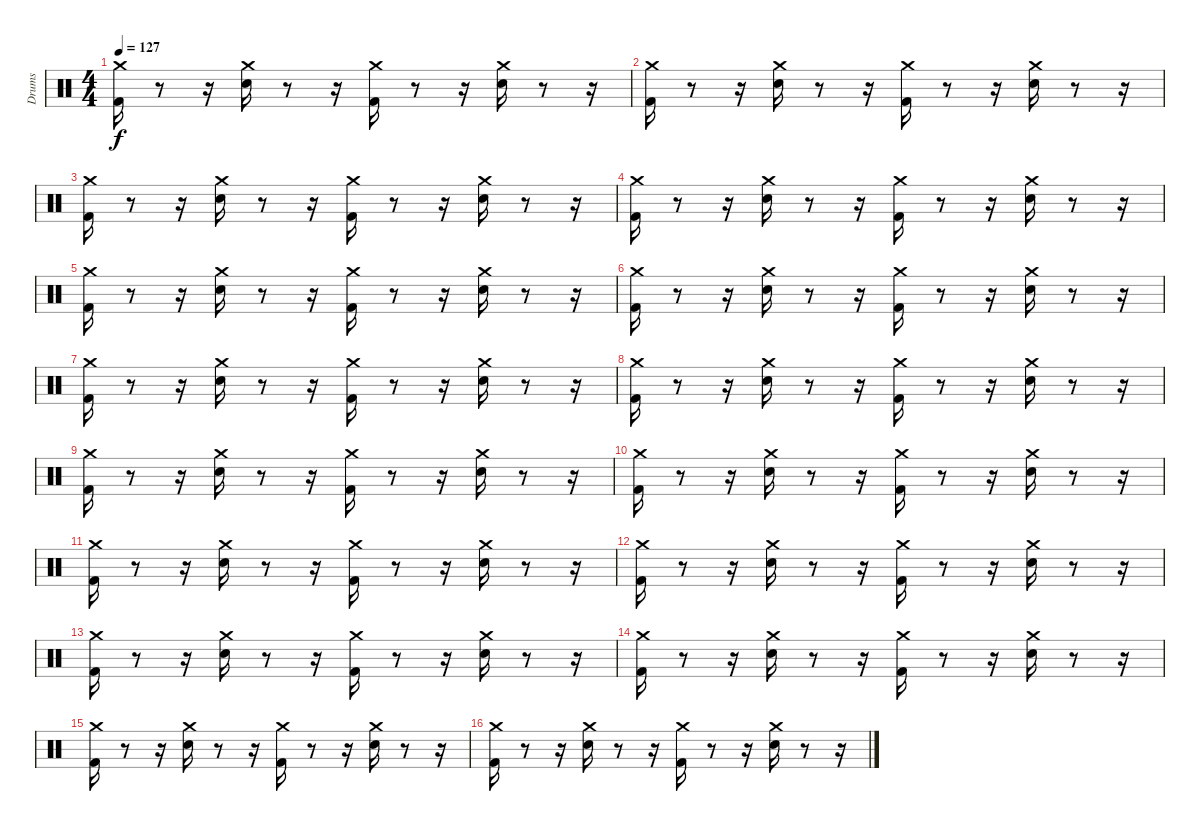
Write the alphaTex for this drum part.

\track ("Drums               " "Drums     ") {instrument percussion}
\staff {score}
\articulation defaults
\ts (4 4)
\tempo 127
\clef neutral
\ks c
("Kick (hit) 2" "Crash medium (hit)").16{dy f} r.8 r.16 ("Electric Snare (hit)" "Crash medium (hit)").16 r.8 r.16 ("Kick (hit) 2" "Crash medium (hit)").16 r.8 r.16 ("Electric Snare (hit)" "Crash medium (hit)").16 r.8 r.16 |
("Kick (hit) 2" "Crash medium (hit)").16 r.8 r.16 ("Electric Snare (hit)" "Crash medium (hit)").16 r.8 r.16 ("Kick (hit) 2" "Crash medium (hit)").16 r.8 r.16 ("Electric Snare (hit)" "Crash medium (hit)").16 r.8 r.16 |
("Kick (hit) 2" "Crash medium (hit)").16 r.8 r.16 ("Electric Snare (hit)" "Crash medium (hit)").16 r.8 r.16 ("Kick (hit) 2" "Crash medium (hit)").16 r.8 r.16 ("Electric Snare (hit)" "Crash medium (hit)").16 r.8 r.16 |
("Kick (hit) 2" "Crash medium (hit)").16 r.8 r.16 ("Electric Snare (hit)" "Crash medium (hit)").16 r.8 r.16 ("Kick (hit) 2" "Crash medium (hit)").16 r.8 r.16 ("Electric Snare (hit)" "Crash medium (hit)").16 r.8 r.16 |
("Kick (hit) 2" "Crash medium (hit)").16 r.8 r.16 ("Electric Snare (hit)" "Crash medium (hit)").16 r.8 r.16 ("Kick (hit) 2" "Crash medium (hit)").16 r.8 r.16 ("Electric Snare (hit)" "Crash medium (hit)").16 r.8 r.16 |
("Kick (hit) 2" "Crash medium (hit)").16 r.8 r.16 ("Electric Snare (hit)" "Crash medium (hit)").16 r.8 r.16 ("Kick (hit) 2" "Crash medium (hit)").16 r.8 r.16 ("Electric Snare (hit)" "Crash medium (hit)").16 r.8 r.16 |
("Kick (hit) 2" "Crash medium (hit)").16 r.8 r.16 ("Electric Snare (hit)" "Crash medium (hit)").16 r.8 r.16 ("Kick (hit) 2" "Crash medium (hit)").16 r.8 r.16 ("Electric Snare (hit)" "Crash medium (hit)").16 r.8 r.16 |
("Kick (hit) 2" "Crash medium (hit)").16 r.8 r.16 ("Electric Snare (hit)" "Crash medium (hit)").16 r.8 r.16 ("Kick (hit) 2" "Crash medium (hit)").16 r.8 r.16 ("Electric Snare (hit)" "Crash medium (hit)").16 r.8 r.16 |
("Kick (hit) 2" "Crash medium (hit)").16 r.8 r.16 ("Electric Snare (hit)" "Crash medium (hit)").16 r.8 r.16 ("Kick (hit) 2" "Crash medium (hit)").16 r.8 r.16 ("Electric Snare (hit)" "Crash medium (hit)").16 r.8 r.16 |
("Kick (hit) 2" "Crash medium (hit)").16 r.8 r.16 ("Electric Snare (hit)" "Crash medium (hit)").16 r.8 r.16 ("Kick (hit) 2" "Crash medium (hit)").16 r.8 r.16 ("Electric Snare (hit)" "Crash medium (hit)").16 r.8 r.16 |
("Kick (hit) 2" "Crash medium (hit)").16 r.8 r.16 ("Electric Snare (hit)" "Crash medium (hit)").16 r.8 r.16 ("Kick (hit) 2" "Crash medium (hit)").16 r.8 r.16 ("Electric Snare (hit)" "Crash medium (hit)").16 r.8 r.16 |
("Kick (hit) 2" "Crash medium (hit)").16 r.8 r.16 ("Electric Snare (hit)" "Crash medium (hit)").16 r.8 r.16 ("Kick (hit) 2" "Crash medium (hit)").16 r.8 r.16 ("Electric Snare (hit)" "Crash medium (hit)").16 r.8 r.16 |
("Kick (hit) 2" "Crash medium (hit)").16 r.8 r.16 ("Electric Snare (hit)" "Crash medium (hit)").16 r.8 r.16 ("Kick (hit) 2" "Crash medium (hit)").16 r.8 r.16 ("Electric Snare (hit)" "Crash medium (hit)").16 r.8 r.16 |
("Kick (hit) 2" "Crash medium (hit)").16 r.8 r.16 ("Electric Snare (hit)" "Crash medium (hit)").16 r.8 r.16 ("Kick (hit) 2" "Crash medium (hit)").16 r.8 r.16 ("Electric Snare (hit)" "Crash medium (hit)").16 r.8 r.16 |
("Kick (hit) 2" "Crash medium (hit)").16 r.8 r.16 ("Electric Snare (hit)" "Crash medium (hit)").16 r.8 r.16 ("Kick (hit) 2" "Crash medium (hit)").16 r.8 r.16 ("Electric Snare (hit)" "Crash medium (hit)").16 r.8 r.16 |
("Kick (hit) 2" "Crash medium (hit)").16 r.8 r.16 ("Electric Snare (hit)" "Crash medium (hit)").16 r.8 r.16 ("Kick (hit) 2" "Crash medium (hit)").16 r.8 r.16 ("Electric Snare (hit)" "Crash medium (hit)").16 r.8 r.16
